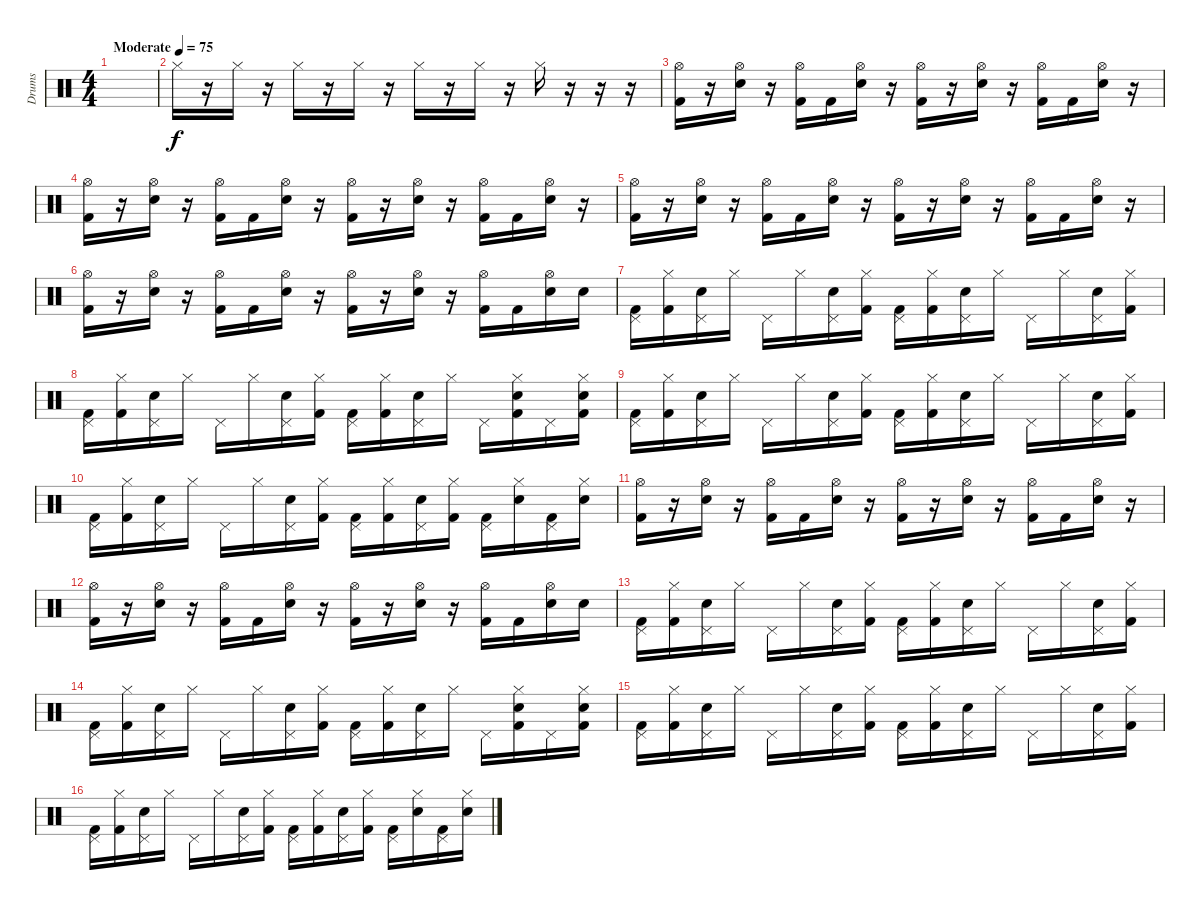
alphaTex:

\track ("Drums" "Drums") {instrument percussion}
\staff {score}
\articulation defaults
\ts (4 4)
\tempo (75 "Moderate")
\clef neutral
\ks c
|
"Hi-Hat (closed)".16 r.16 "Hi-Hat (closed)".16 r.16 "Hi-Hat (closed)".16 r.16 "Hi-Hat (closed)".16 r.16 "Hi-Hat (closed)".16 r.16 "Hi-Hat (closed)".16 r.16 "Hi-Hat (closed)".16 r.16 r.16 r.16 |
("Kick (hit) 2" "Hi-Hat (open)").16 r.16 ("Electric Snare (hit)" "Hi-Hat (open)").16 r.16 ("Kick (hit) 2" "Hi-Hat (open)").16 "Kick (hit) 2".16 ("Electric Snare (hit)" "Hi-Hat (open)").16 r.16 ("Kick (hit) 2" "Hi-Hat (open)").16 r.16 ("Electric Snare (hit)" "Hi-Hat (open)").16 r.16 ("Kick (hit) 2" "Hi-Hat (open)").16 "Kick (hit) 2".16 ("Electric Snare (hit)" "Hi-Hat (open)").16 r.16 |
("Kick (hit) 2" "Hi-Hat (open)").16 r.16 ("Electric Snare (hit)" "Hi-Hat (open)").16 r.16 ("Kick (hit) 2" "Hi-Hat (open)").16 "Kick (hit) 2".16 ("Electric Snare (hit)" "Hi-Hat (open)").16 r.16 ("Kick (hit) 2" "Hi-Hat (open)").16 r.16 ("Electric Snare (hit)" "Hi-Hat (open)").16 r.16 ("Kick (hit) 2" "Hi-Hat (open)").16 "Kick (hit) 2".16 ("Electric Snare (hit)" "Hi-Hat (open)").16 r.16 |
("Kick (hit) 2" "Hi-Hat (open)").16 r.16 ("Electric Snare (hit)" "Hi-Hat (open)").16 r.16 ("Kick (hit) 2" "Hi-Hat (open)").16 "Kick (hit) 2".16 ("Electric Snare (hit)" "Hi-Hat (open)").16 r.16 ("Kick (hit) 2" "Hi-Hat (open)").16 r.16 ("Electric Snare (hit)" "Hi-Hat (open)").16 r.16 ("Kick (hit) 2" "Hi-Hat (open)").16 "Kick (hit) 2".16 ("Electric Snare (hit)" "Hi-Hat (open)").16 r.16 |
("Kick (hit) 2" "Hi-Hat (open)").16 r.16 ("Electric Snare (hit)" "Hi-Hat (open)").16 r.16 ("Kick (hit) 2" "Hi-Hat (open)").16 "Kick (hit) 2".16 ("Electric Snare (hit)" "Hi-Hat (open)").16 r.16 ("Kick (hit) 2" "Hi-Hat (open)").16 r.16 ("Electric Snare (hit)" "Hi-Hat (open)").16 r.16 ("Kick (hit) 2" "Hi-Hat (open)").16 "Kick (hit) 2".16 ("Electric Snare (hit)" "Hi-Hat (open)").16 "Electric Snare (hit)".16 |
("Kick (hit) 2" "Pedal Hi-Hat (hit)").16 ("Kick (hit) 2" "Hi-Hat (closed)").16 ("Electric Snare (hit)" "Pedal Hi-Hat (hit)").16 "Hi-Hat (closed)".16 "Pedal Hi-Hat (hit)".16 "Hi-Hat (closed)".16 ("Electric Snare (hit)" "Pedal Hi-Hat (hit)").16 ("Kick (hit) 2" "Hi-Hat (closed)").16 ("Kick (hit) 2" "Pedal Hi-Hat (hit)").16 ("Kick (hit) 2" "Hi-Hat (closed)").16 ("Electric Snare (hit)" "Pedal Hi-Hat (hit)").16 "Hi-Hat (closed)".16 "Pedal Hi-Hat (hit)".16 "Hi-Hat (closed)".16 ("Electric Snare (hit)" "Pedal Hi-Hat (hit)").16 ("Kick (hit) 2" "Hi-Hat (closed)").16 |
("Kick (hit) 2" "Pedal Hi-Hat (hit)").16 ("Kick (hit) 2" "Hi-Hat (closed)").16 ("Electric Snare (hit)" "Pedal Hi-Hat (hit)").16 "Hi-Hat (closed)".16 "Pedal Hi-Hat (hit)".16 "Hi-Hat (closed)".16 ("Electric Snare (hit)" "Pedal Hi-Hat (hit)").16 ("Kick (hit) 2" "Hi-Hat (closed)").16 ("Kick (hit) 2" "Pedal Hi-Hat (hit)").16 ("Kick (hit) 2" "Hi-Hat (closed)").16 ("Electric Snare (hit)" "Pedal Hi-Hat (hit)").16 "Hi-Hat (closed)".16 "Pedal Hi-Hat (hit)".16 ("Kick (hit) 2" "Electric Snare (hit)" "Hi-Hat (closed)").16 "Pedal Hi-Hat (hit)".16 ("Kick (hit) 2" "Electric Snare (hit)" "Hi-Hat (closed)").16 |
("Kick (hit) 2" "Pedal Hi-Hat (hit)").16 ("Kick (hit) 2" "Hi-Hat (closed)").16 ("Electric Snare (hit)" "Pedal Hi-Hat (hit)").16 "Hi-Hat (closed)".16 "Pedal Hi-Hat (hit)".16 "Hi-Hat (closed)".16 ("Electric Snare (hit)" "Pedal Hi-Hat (hit)").16 ("Kick (hit) 2" "Hi-Hat (closed)").16 ("Kick (hit) 2" "Pedal Hi-Hat (hit)").16 ("Kick (hit) 2" "Hi-Hat (closed)").16 ("Electric Snare (hit)" "Pedal Hi-Hat (hit)").16 "Hi-Hat (closed)".16 "Pedal Hi-Hat (hit)".16 "Hi-Hat (closed)".16 ("Electric Snare (hit)" "Pedal Hi-Hat (hit)").16 ("Kick (hit) 2" "Hi-Hat (closed)").16 |
("Kick (hit) 2" "Pedal Hi-Hat (hit)").16 ("Kick (hit) 2" "Hi-Hat (closed)").16 ("Electric Snare (hit)" "Pedal Hi-Hat (hit)").16 "Hi-Hat (closed)".16 "Pedal Hi-Hat (hit)".16 "Hi-Hat (closed)".16 ("Electric Snare (hit)" "Pedal Hi-Hat (hit)").16 ("Kick (hit) 2" "Hi-Hat (closed)").16 ("Kick (hit) 2" "Pedal Hi-Hat (hit)").16 ("Kick (hit) 2" "Hi-Hat (closed)").16 ("Electric Snare (hit)" "Pedal Hi-Hat (hit)").16 ("Kick (hit) 2" "Hi-Hat (closed)").16 ("Kick (hit) 2" "Pedal Hi-Hat (hit)").16 ("Electric Snare (hit)" "Hi-Hat (closed)").16 ("Kick (hit) 2" "Pedal Hi-Hat (hit)").16 ("Electric Snare (hit)" "Hi-Hat (closed)").16 |
("Kick (hit) 2" "Hi-Hat (open)").16 r.16 ("Electric Snare (hit)" "Hi-Hat (open)").16 r.16 ("Kick (hit) 2" "Hi-Hat (open)").16 "Kick (hit) 2".16 ("Electric Snare (hit)" "Hi-Hat (open)").16 r.16 ("Kick (hit) 2" "Hi-Hat (open)").16 r.16 ("Electric Snare (hit)" "Hi-Hat (open)").16 r.16 ("Kick (hit) 2" "Hi-Hat (open)").16 "Kick (hit) 2".16 ("Electric Snare (hit)" "Hi-Hat (open)").16 r.16 |
("Kick (hit) 2" "Hi-Hat (open)").16 r.16 ("Electric Snare (hit)" "Hi-Hat (open)").16 r.16 ("Kick (hit) 2" "Hi-Hat (open)").16 "Kick (hit) 2".16 ("Electric Snare (hit)" "Hi-Hat (open)").16 r.16 ("Kick (hit) 2" "Hi-Hat (open)").16 r.16 ("Electric Snare (hit)" "Hi-Hat (open)").16 r.16 ("Kick (hit) 2" "Hi-Hat (open)").16 "Kick (hit) 2".16 ("Electric Snare (hit)" "Hi-Hat (open)").16 "Electric Snare (hit)".16 |
("Kick (hit) 2" "Pedal Hi-Hat (hit)").16 ("Kick (hit) 2" "Hi-Hat (closed)").16 ("Electric Snare (hit)" "Pedal Hi-Hat (hit)").16 "Hi-Hat (closed)".16 "Pedal Hi-Hat (hit)".16 "Hi-Hat (closed)".16 ("Electric Snare (hit)" "Pedal Hi-Hat (hit)").16 ("Kick (hit) 2" "Hi-Hat (closed)").16 ("Kick (hit) 2" "Pedal Hi-Hat (hit)").16 ("Kick (hit) 2" "Hi-Hat (closed)").16 ("Electric Snare (hit)" "Pedal Hi-Hat (hit)").16 "Hi-Hat (closed)".16 "Pedal Hi-Hat (hit)".16 "Hi-Hat (closed)".16 ("Electric Snare (hit)" "Pedal Hi-Hat (hit)").16 ("Kick (hit) 2" "Hi-Hat (closed)").16 |
("Kick (hit) 2" "Pedal Hi-Hat (hit)").16 ("Kick (hit) 2" "Hi-Hat (closed)").16 ("Electric Snare (hit)" "Pedal Hi-Hat (hit)").16 "Hi-Hat (closed)".16 "Pedal Hi-Hat (hit)".16 "Hi-Hat (closed)".16 ("Electric Snare (hit)" "Pedal Hi-Hat (hit)").16 ("Kick (hit) 2" "Hi-Hat (closed)").16 ("Kick (hit) 2" "Pedal Hi-Hat (hit)").16 ("Kick (hit) 2" "Hi-Hat (closed)").16 ("Electric Snare (hit)" "Pedal Hi-Hat (hit)").16 "Hi-Hat (closed)".16 "Pedal Hi-Hat (hit)".16 ("Kick (hit) 2" "Electric Snare (hit)" "Hi-Hat (closed)").16 "Pedal Hi-Hat (hit)".16 ("Kick (hit) 2" "Electric Snare (hit)" "Hi-Hat (closed)").16 |
("Kick (hit) 2" "Pedal Hi-Hat (hit)").16 ("Kick (hit) 2" "Hi-Hat (closed)").16 ("Electric Snare (hit)" "Pedal Hi-Hat (hit)").16 "Hi-Hat (closed)".16 "Pedal Hi-Hat (hit)".16 "Hi-Hat (closed)".16 ("Electric Snare (hit)" "Pedal Hi-Hat (hit)").16 ("Kick (hit) 2" "Hi-Hat (closed)").16 ("Kick (hit) 2" "Pedal Hi-Hat (hit)").16 ("Kick (hit) 2" "Hi-Hat (closed)").16 ("Electric Snare (hit)" "Pedal Hi-Hat (hit)").16 "Hi-Hat (closed)".16 "Pedal Hi-Hat (hit)".16 "Hi-Hat (closed)".16 ("Electric Snare (hit)" "Pedal Hi-Hat (hit)").16 ("Kick (hit) 2" "Hi-Hat (closed)").16 |
("Kick (hit) 2" "Pedal Hi-Hat (hit)").16 ("Kick (hit) 2" "Hi-Hat (closed)").16 ("Electric Snare (hit)" "Pedal Hi-Hat (hit)").16 "Hi-Hat (closed)".16 "Pedal Hi-Hat (hit)".16 "Hi-Hat (closed)".16 ("Electric Snare (hit)" "Pedal Hi-Hat (hit)").16 ("Kick (hit) 2" "Hi-Hat (closed)").16 ("Kick (hit) 2" "Pedal Hi-Hat (hit)").16 ("Kick (hit) 2" "Hi-Hat (closed)").16 ("Electric Snare (hit)" "Pedal Hi-Hat (hit)").16 ("Kick (hit) 2" "Hi-Hat (closed)").16 ("Kick (hit) 2" "Pedal Hi-Hat (hit)").16 ("Electric Snare (hit)" "Hi-Hat (closed)").16 ("Kick (hit) 2" "Pedal Hi-Hat (hit)").16 ("Electric Snare (hit)" "Hi-Hat (closed)").16
